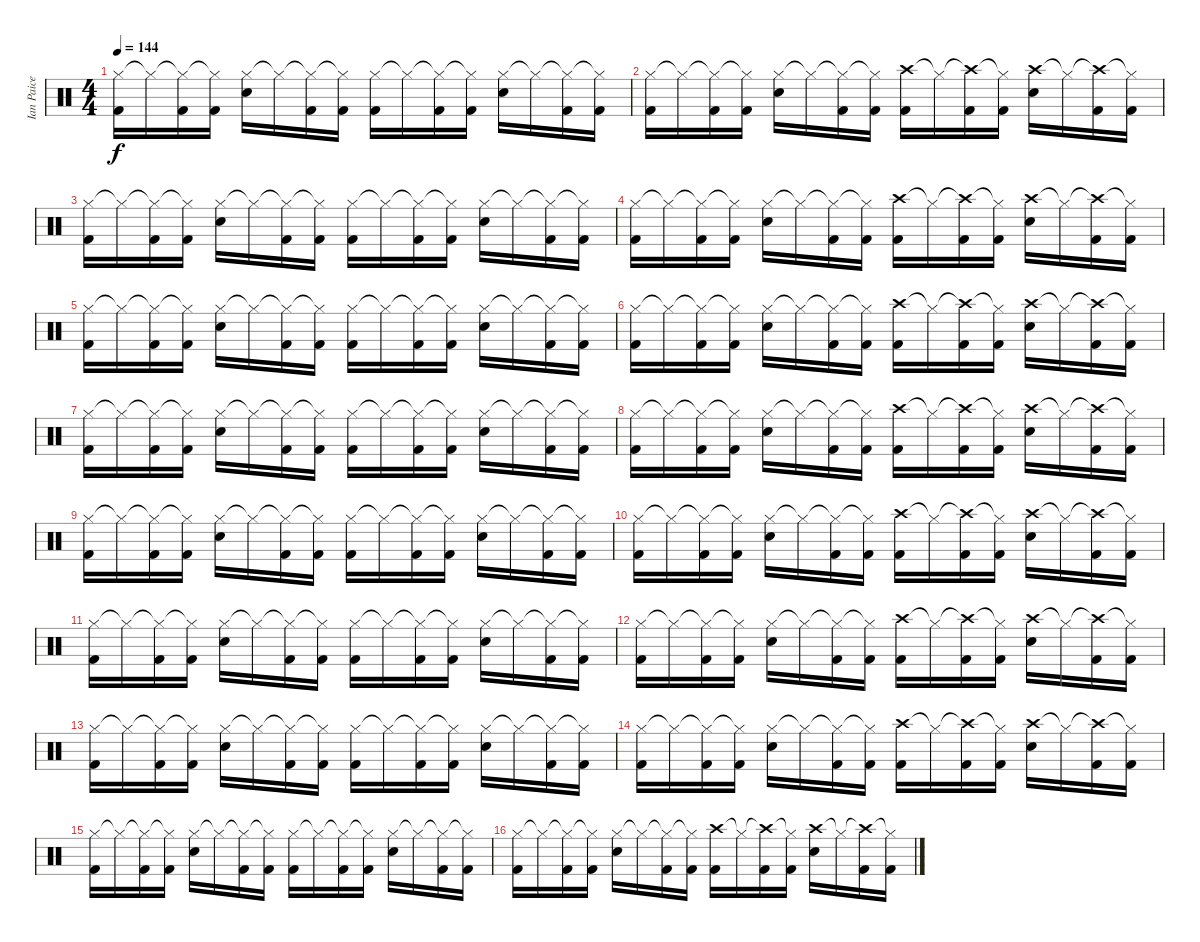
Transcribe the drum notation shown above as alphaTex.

\track ("Ian Paice" "Ian Paice") {instrument percussion}
\staff {score}
\articulation defaults
\ts (4 4)
\tempo 144
\clef neutral
\ks c
("Hi-Hat (closed)" "Kick (hit) 2").16{dy f} "Hi-Hat (closed)"{t}.16 ("Hi-Hat (closed)"{t} "Kick (hit) 2").16 ("Hi-Hat (closed)"{t} "Kick (hit) 2").16 ("Hi-Hat (closed)" "Snare (hit) 2").16 "Hi-Hat (closed)"{t}.16 ("Hi-Hat (closed)"{t} "Kick (hit) 2").16 ("Hi-Hat (closed)"{t} "Kick (hit) 2").16 ("Hi-Hat (closed)" "Kick (hit) 2").16 "Hi-Hat (closed)"{t}.16 ("Hi-Hat (closed)"{t} "Kick (hit) 2").16 ("Hi-Hat (closed)"{t} "Kick (hit) 2").16 ("Hi-Hat (closed)" "Snare (hit) 2").16 "Hi-Hat (closed)"{t}.16 ("Hi-Hat (closed)"{t} "Kick (hit) 2").16 ("Hi-Hat (closed)"{t} "Kick (hit) 2").16 |
("Hi-Hat (closed)" "Kick (hit) 2").16 "Hi-Hat (closed)"{t}.16 ("Hi-Hat (closed)"{t} "Kick (hit) 2").16 ("Hi-Hat (closed)"{t} "Kick (hit) 2").16 ("Hi-Hat (closed)" "Snare (hit) 2").16 "Hi-Hat (closed)"{t}.16 ("Hi-Hat (closed)"{t} "Kick (hit) 2").16 ("Hi-Hat (closed)"{t} "Kick (hit) 2").16 ("Crash high (hit)" "Kick (hit) 2").16 "Hi-Hat (closed)"{t}.16 ("Crash high (hit)"{t} "Kick (hit) 2").16 ("Hi-Hat (closed)"{t} "Kick (hit) 2").16 ("Crash high (hit)" "Snare (hit) 2").16 "Hi-Hat (closed)"{t}.16 ("Crash high (hit)"{t} "Kick (hit) 2").16 ("Hi-Hat (closed)"{t} "Kick (hit) 2").16 |
("Hi-Hat (closed)" "Kick (hit) 2").16 "Hi-Hat (closed)"{t}.16 ("Hi-Hat (closed)"{t} "Kick (hit) 2").16 ("Hi-Hat (closed)"{t} "Kick (hit) 2").16 ("Hi-Hat (closed)" "Snare (hit) 2").16 "Hi-Hat (closed)"{t}.16 ("Hi-Hat (closed)"{t} "Kick (hit) 2").16 ("Hi-Hat (closed)"{t} "Kick (hit) 2").16 ("Hi-Hat (closed)" "Kick (hit) 2").16 "Hi-Hat (closed)"{t}.16 ("Hi-Hat (closed)"{t} "Kick (hit) 2").16 ("Hi-Hat (closed)"{t} "Kick (hit) 2").16 ("Hi-Hat (closed)" "Snare (hit) 2").16 "Hi-Hat (closed)"{t}.16 ("Hi-Hat (closed)"{t} "Kick (hit) 2").16 ("Hi-Hat (closed)"{t} "Kick (hit) 2").16 |
("Hi-Hat (closed)" "Kick (hit) 2").16 "Hi-Hat (closed)"{t}.16 ("Hi-Hat (closed)"{t} "Kick (hit) 2").16 ("Hi-Hat (closed)"{t} "Kick (hit) 2").16 ("Hi-Hat (closed)" "Snare (hit) 2").16 "Hi-Hat (closed)"{t}.16 ("Hi-Hat (closed)"{t} "Kick (hit) 2").16 ("Hi-Hat (closed)"{t} "Kick (hit) 2").16 ("Crash high (hit)" "Kick (hit) 2").16 "Hi-Hat (closed)"{t}.16 ("Crash high (hit)"{t} "Kick (hit) 2").16 ("Hi-Hat (closed)"{t} "Kick (hit) 2").16 ("Crash high (hit)" "Snare (hit) 2").16 "Hi-Hat (closed)"{t}.16 ("Crash high (hit)"{t} "Kick (hit) 2").16 ("Hi-Hat (closed)"{t} "Kick (hit) 2").16 |
("Hi-Hat (closed)" "Kick (hit) 2").16 "Hi-Hat (closed)"{t}.16 ("Hi-Hat (closed)"{t} "Kick (hit) 2").16 ("Hi-Hat (closed)"{t} "Kick (hit) 2").16 ("Hi-Hat (closed)" "Snare (hit) 2").16 "Hi-Hat (closed)"{t}.16 ("Hi-Hat (closed)"{t} "Kick (hit) 2").16 ("Hi-Hat (closed)"{t} "Kick (hit) 2").16 ("Hi-Hat (closed)" "Kick (hit) 2").16 "Hi-Hat (closed)"{t}.16 ("Hi-Hat (closed)"{t} "Kick (hit) 2").16 ("Hi-Hat (closed)"{t} "Kick (hit) 2").16 ("Hi-Hat (closed)" "Snare (hit) 2").16 "Hi-Hat (closed)"{t}.16 ("Hi-Hat (closed)"{t} "Kick (hit) 2").16 ("Hi-Hat (closed)"{t} "Kick (hit) 2").16 |
("Hi-Hat (closed)" "Kick (hit) 2").16 "Hi-Hat (closed)"{t}.16 ("Hi-Hat (closed)"{t} "Kick (hit) 2").16 ("Hi-Hat (closed)"{t} "Kick (hit) 2").16 ("Hi-Hat (closed)" "Snare (hit) 2").16 "Hi-Hat (closed)"{t}.16 ("Hi-Hat (closed)"{t} "Kick (hit) 2").16 ("Hi-Hat (closed)"{t} "Kick (hit) 2").16 ("Crash high (hit)" "Kick (hit) 2").16 "Hi-Hat (closed)"{t}.16 ("Crash high (hit)"{t} "Kick (hit) 2").16 ("Hi-Hat (closed)"{t} "Kick (hit) 2").16 ("Crash high (hit)" "Snare (hit) 2").16 "Hi-Hat (closed)"{t}.16 ("Crash high (hit)"{t} "Kick (hit) 2").16 ("Hi-Hat (closed)"{t} "Kick (hit) 2").16 |
("Hi-Hat (closed)" "Kick (hit) 2").16 "Hi-Hat (closed)"{t}.16 ("Hi-Hat (closed)"{t} "Kick (hit) 2").16 ("Hi-Hat (closed)"{t} "Kick (hit) 2").16 ("Hi-Hat (closed)" "Snare (hit) 2").16 "Hi-Hat (closed)"{t}.16 ("Hi-Hat (closed)"{t} "Kick (hit) 2").16 ("Hi-Hat (closed)"{t} "Kick (hit) 2").16 ("Hi-Hat (closed)" "Kick (hit) 2").16 "Hi-Hat (closed)"{t}.16 ("Hi-Hat (closed)"{t} "Kick (hit) 2").16 ("Hi-Hat (closed)"{t} "Kick (hit) 2").16 ("Hi-Hat (closed)" "Snare (hit) 2").16 "Hi-Hat (closed)"{t}.16 ("Hi-Hat (closed)"{t} "Kick (hit) 2").16 ("Hi-Hat (closed)"{t} "Kick (hit) 2").16 |
("Hi-Hat (closed)" "Kick (hit) 2").16 "Hi-Hat (closed)"{t}.16 ("Hi-Hat (closed)"{t} "Kick (hit) 2").16 ("Hi-Hat (closed)"{t} "Kick (hit) 2").16 ("Hi-Hat (closed)" "Snare (hit) 2").16 "Hi-Hat (closed)"{t}.16 ("Hi-Hat (closed)"{t} "Kick (hit) 2").16 ("Hi-Hat (closed)"{t} "Kick (hit) 2").16 ("Crash high (hit)" "Kick (hit) 2").16 "Hi-Hat (closed)"{t}.16 ("Crash high (hit)"{t} "Kick (hit) 2").16 ("Hi-Hat (closed)"{t} "Kick (hit) 2").16 ("Crash high (hit)" "Snare (hit) 2").16 "Hi-Hat (closed)"{t}.16 ("Crash high (hit)"{t} "Kick (hit) 2").16 ("Hi-Hat (closed)"{t} "Kick (hit) 2").16 |
("Hi-Hat (closed)" "Kick (hit) 2").16 "Hi-Hat (closed)"{t}.16 ("Hi-Hat (closed)"{t} "Kick (hit) 2").16 ("Hi-Hat (closed)"{t} "Kick (hit) 2").16 ("Hi-Hat (closed)" "Snare (hit) 2").16 "Hi-Hat (closed)"{t}.16 ("Hi-Hat (closed)"{t} "Kick (hit) 2").16 ("Hi-Hat (closed)"{t} "Kick (hit) 2").16 ("Hi-Hat (closed)" "Kick (hit) 2").16 "Hi-Hat (closed)"{t}.16 ("Hi-Hat (closed)"{t} "Kick (hit) 2").16 ("Hi-Hat (closed)"{t} "Kick (hit) 2").16 ("Hi-Hat (closed)" "Snare (hit) 2").16 "Hi-Hat (closed)"{t}.16 ("Hi-Hat (closed)"{t} "Kick (hit) 2").16 ("Hi-Hat (closed)"{t} "Kick (hit) 2").16 |
("Hi-Hat (closed)" "Kick (hit) 2").16 "Hi-Hat (closed)"{t}.16 ("Hi-Hat (closed)"{t} "Kick (hit) 2").16 ("Hi-Hat (closed)"{t} "Kick (hit) 2").16 ("Hi-Hat (closed)" "Snare (hit) 2").16 "Hi-Hat (closed)"{t}.16 ("Hi-Hat (closed)"{t} "Kick (hit) 2").16 ("Hi-Hat (closed)"{t} "Kick (hit) 2").16 ("Crash high (hit)" "Kick (hit) 2").16 "Hi-Hat (closed)"{t}.16 ("Crash high (hit)"{t} "Kick (hit) 2").16 ("Hi-Hat (closed)"{t} "Kick (hit) 2").16 ("Crash high (hit)" "Snare (hit) 2").16 "Hi-Hat (closed)"{t}.16 ("Crash high (hit)"{t} "Kick (hit) 2").16 ("Hi-Hat (closed)"{t} "Kick (hit) 2").16 |
("Hi-Hat (closed)" "Kick (hit) 2").16 "Hi-Hat (closed)"{t}.16 ("Hi-Hat (closed)"{t} "Kick (hit) 2").16 ("Hi-Hat (closed)"{t} "Kick (hit) 2").16 ("Hi-Hat (closed)" "Snare (hit) 2").16 "Hi-Hat (closed)"{t}.16 ("Hi-Hat (closed)"{t} "Kick (hit) 2").16 ("Hi-Hat (closed)"{t} "Kick (hit) 2").16 ("Hi-Hat (closed)" "Kick (hit) 2").16 "Hi-Hat (closed)"{t}.16 ("Hi-Hat (closed)"{t} "Kick (hit) 2").16 ("Hi-Hat (closed)"{t} "Kick (hit) 2").16 ("Hi-Hat (closed)" "Snare (hit) 2").16 "Hi-Hat (closed)"{t}.16 ("Hi-Hat (closed)"{t} "Kick (hit) 2").16 ("Hi-Hat (closed)"{t} "Kick (hit) 2").16 |
("Hi-Hat (closed)" "Kick (hit) 2").16 "Hi-Hat (closed)"{t}.16 ("Hi-Hat (closed)"{t} "Kick (hit) 2").16 ("Hi-Hat (closed)"{t} "Kick (hit) 2").16 ("Hi-Hat (closed)" "Snare (hit) 2").16 "Hi-Hat (closed)"{t}.16 ("Hi-Hat (closed)"{t} "Kick (hit) 2").16 ("Hi-Hat (closed)"{t} "Kick (hit) 2").16 ("Crash high (hit)" "Kick (hit) 2").16 "Hi-Hat (closed)"{t}.16 ("Crash high (hit)"{t} "Kick (hit) 2").16 ("Hi-Hat (closed)"{t} "Kick (hit) 2").16 ("Crash high (hit)" "Snare (hit) 2").16 "Hi-Hat (closed)"{t}.16 ("Crash high (hit)"{t} "Kick (hit) 2").16 ("Hi-Hat (closed)"{t} "Kick (hit) 2").16 |
("Hi-Hat (closed)" "Kick (hit) 2").16 "Hi-Hat (closed)"{t}.16 ("Hi-Hat (closed)"{t} "Kick (hit) 2").16 ("Hi-Hat (closed)"{t} "Kick (hit) 2").16 ("Hi-Hat (closed)" "Snare (hit) 2").16 "Hi-Hat (closed)"{t}.16 ("Hi-Hat (closed)"{t} "Kick (hit) 2").16 ("Hi-Hat (closed)"{t} "Kick (hit) 2").16 ("Hi-Hat (closed)" "Kick (hit) 2").16 "Hi-Hat (closed)"{t}.16 ("Hi-Hat (closed)"{t} "Kick (hit) 2").16 ("Hi-Hat (closed)"{t} "Kick (hit) 2").16 ("Hi-Hat (closed)" "Snare (hit) 2").16 "Hi-Hat (closed)"{t}.16 ("Hi-Hat (closed)"{t} "Kick (hit) 2").16 ("Hi-Hat (closed)"{t} "Kick (hit) 2").16 |
("Hi-Hat (closed)" "Kick (hit) 2").16 "Hi-Hat (closed)"{t}.16 ("Hi-Hat (closed)"{t} "Kick (hit) 2").16 ("Hi-Hat (closed)"{t} "Kick (hit) 2").16 ("Hi-Hat (closed)" "Snare (hit) 2").16 "Hi-Hat (closed)"{t}.16 ("Hi-Hat (closed)"{t} "Kick (hit) 2").16 ("Hi-Hat (closed)"{t} "Kick (hit) 2").16 ("Crash high (hit)" "Kick (hit) 2").16 "Hi-Hat (closed)"{t}.16 ("Crash high (hit)"{t} "Kick (hit) 2").16 ("Hi-Hat (closed)"{t} "Kick (hit) 2").16 ("Crash high (hit)" "Snare (hit) 2").16 "Hi-Hat (closed)"{t}.16 ("Crash high (hit)"{t} "Kick (hit) 2").16 ("Hi-Hat (closed)"{t} "Kick (hit) 2").16 |
("Hi-Hat (closed)" "Kick (hit) 2").16 "Hi-Hat (closed)"{t}.16 ("Hi-Hat (closed)"{t} "Kick (hit) 2").16 ("Hi-Hat (closed)"{t} "Kick (hit) 2").16 ("Hi-Hat (closed)" "Snare (hit) 2").16 "Hi-Hat (closed)"{t}.16 ("Hi-Hat (closed)"{t} "Kick (hit) 2").16 ("Hi-Hat (closed)"{t} "Kick (hit) 2").16 ("Hi-Hat (closed)" "Kick (hit) 2").16 "Hi-Hat (closed)"{t}.16 ("Hi-Hat (closed)"{t} "Kick (hit) 2").16 ("Hi-Hat (closed)"{t} "Kick (hit) 2").16 ("Hi-Hat (closed)" "Snare (hit) 2").16 "Hi-Hat (closed)"{t}.16 ("Hi-Hat (closed)"{t} "Kick (hit) 2").16 ("Hi-Hat (closed)"{t} "Kick (hit) 2").16 |
("Hi-Hat (closed)" "Kick (hit) 2").16 "Hi-Hat (closed)"{t}.16 ("Hi-Hat (closed)"{t} "Kick (hit) 2").16 ("Hi-Hat (closed)"{t} "Kick (hit) 2").16 ("Hi-Hat (closed)" "Snare (hit) 2").16 "Hi-Hat (closed)"{t}.16 ("Hi-Hat (closed)"{t} "Kick (hit) 2").16 ("Hi-Hat (closed)"{t} "Kick (hit) 2").16 ("Crash high (hit)" "Kick (hit) 2").16 "Hi-Hat (closed)"{t}.16 ("Crash high (hit)"{t} "Kick (hit) 2").16 ("Hi-Hat (closed)"{t} "Kick (hit) 2").16 ("Crash high (hit)" "Snare (hit) 2").16 "Hi-Hat (closed)"{t}.16 ("Crash high (hit)"{t} "Kick (hit) 2").16 ("Hi-Hat (closed)"{t} "Kick (hit) 2").16
